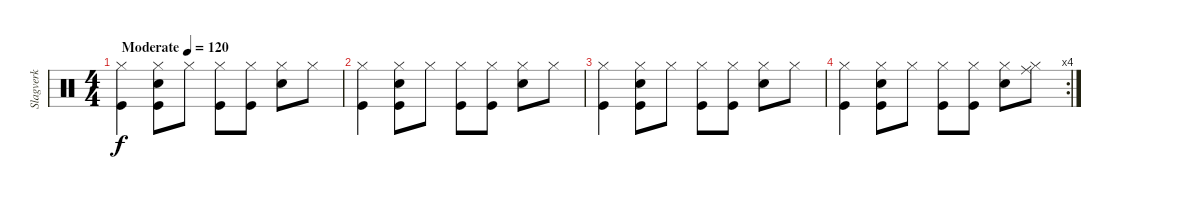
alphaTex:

\track ("Slagverk" "Slagverk") {instrument percussion}
\staff {score}
\articulation defaults
\ts (4 4)
\tempo (120 "Moderate")
\clef neutral
\ks c
("Kick (hit)" "Hi-Hat (closed)").4{dy f} ("Snare (hit) 2" "Kick (hit)" "Hi-Hat (closed)").8 "Hi-Hat (closed)".8 ("Kick (hit)" "Hi-Hat (closed)").8 ("Kick (hit)" "Hi-Hat (closed)").8 ("Snare (hit) 2" "Hi-Hat (closed)").8 "Hi-Hat (closed)".8 |
("Kick (hit)" "Hi-Hat (closed)").4 ("Snare (hit) 2" "Kick (hit)" "Hi-Hat (closed)").8 "Hi-Hat (closed)".8 ("Kick (hit)" "Hi-Hat (closed)").8 ("Kick (hit)" "Hi-Hat (closed)").8 ("Snare (hit) 2" "Hi-Hat (closed)").8 "Hi-Hat (closed)".8 |
("Kick (hit)" "Hi-Hat (closed)").4 ("Snare (hit) 2" "Kick (hit)" "Hi-Hat (closed)").8 "Hi-Hat (closed)".8 ("Kick (hit)" "Hi-Hat (closed)").8 ("Kick (hit)" "Hi-Hat (closed)").8 ("Snare (hit) 2" "Hi-Hat (closed)").8 "Hi-Hat (closed)".8 |
\rc 4
("Kick (hit)" "Hi-Hat (closed)").4 ("Snare (hit) 2" "Kick (hit)" "Hi-Hat (closed)").8 "Hi-Hat (closed)".8 ("Kick (hit)" "Hi-Hat (closed)").8 ("Kick (hit)" "Hi-Hat (closed)").8 ("Snare (hit) 2" "Hi-Hat (closed)").8 ("Ride (middle)" "Hi-Hat (closed)").8
